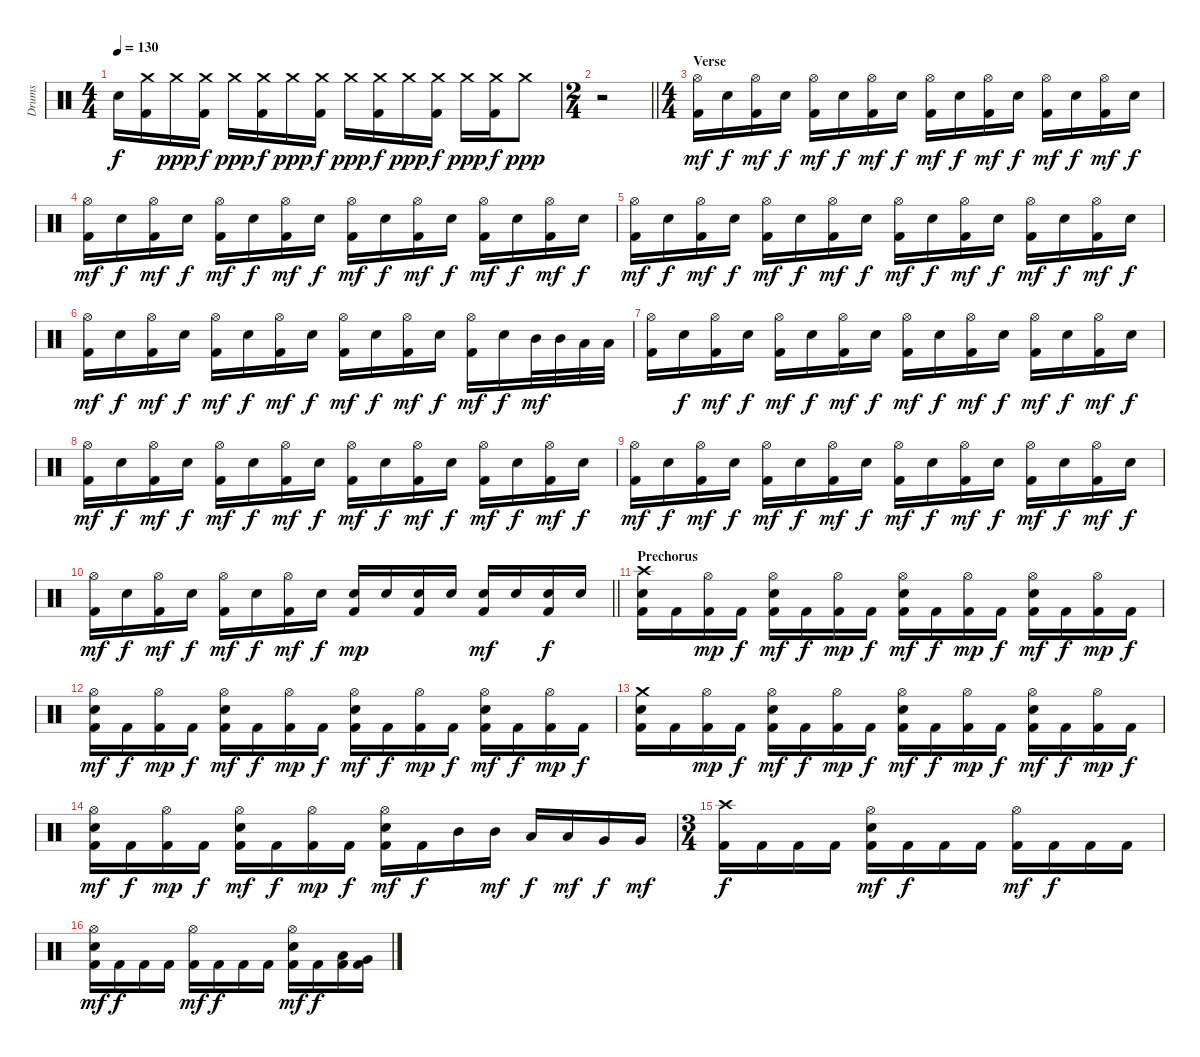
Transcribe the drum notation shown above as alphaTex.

\track ("Drums" "Drums") {instrument percussion}
\staff {score}
\articulation defaults
\ts (4 4)
\tempo 130
\clef neutral
\ks c "Electric Snare (hit)".16{dy f}
("Kick (hit) 2" "Crash medium (hit)").16 "Crash medium (hit)".16{dy ppp} ("Kick (hit) 2" "Crash medium (hit)").16{dy f} "Crash medium (hit)".16{dy ppp} ("Kick (hit) 2" "Crash medium (hit)").16{dy f} "Crash medium (hit)".16{dy ppp} ("Kick (hit) 2" "Crash medium (hit)").16{dy f} "Crash medium (hit)".16{dy ppp} ("Kick (hit) 2" "Crash medium (hit)").16{dy f} "Crash medium (hit)".16{dy ppp} ("Kick (hit) 2" "Crash medium (hit)").16{dy f} "Crash medium (hit)".16{dy ppp} ("Kick (hit) 2" "Crash medium (hit)").16{dy f} "Crash medium (hit)".8{dy ppp} |
\ts (2 4)
\barLineRight lightlight
r.2 |
\ts (4 4)
\section ("" "Verse")
("Kick (hit) 2" "Hi-Hat (open)").16{dy mf} "Electric Snare (hit)".16{dy f} ("Kick (hit) 2" "Hi-Hat (open)").16{dy mf} "Electric Snare (hit)".16{dy f} ("Kick (hit) 2" "Hi-Hat (open)").16{dy mf} "Electric Snare (hit)".16{dy f} ("Kick (hit) 2" "Hi-Hat (open)").16{dy mf} "Electric Snare (hit)".16{dy f} ("Kick (hit) 2" "Hi-Hat (open)").16{dy mf} "Electric Snare (hit)".16{dy f} ("Kick (hit) 2" "Hi-Hat (open)").16{dy mf} "Electric Snare (hit)".16{dy f} ("Kick (hit) 2" "Hi-Hat (open)").16{dy mf} "Electric Snare (hit)".16{dy f} ("Kick (hit) 2" "Hi-Hat (open)").16{dy mf} "Electric Snare (hit)".16{dy f} |
("Kick (hit) 2" "Hi-Hat (open)").16{dy mf} "Electric Snare (hit)".16{dy f} ("Kick (hit) 2" "Hi-Hat (open)").16{dy mf} "Electric Snare (hit)".16{dy f} ("Kick (hit) 2" "Hi-Hat (open)").16{dy mf} "Electric Snare (hit)".16{dy f} ("Kick (hit) 2" "Hi-Hat (open)").16{dy mf} "Electric Snare (hit)".16{dy f} ("Kick (hit) 2" "Hi-Hat (open)").16{dy mf} "Electric Snare (hit)".16{dy f} ("Kick (hit) 2" "Hi-Hat (open)").16{dy mf} "Electric Snare (hit)".16{dy f} ("Kick (hit) 2" "Hi-Hat (open)").16{dy mf} "Electric Snare (hit)".16{dy f} ("Kick (hit) 2" "Hi-Hat (open)").16{dy mf} "Electric Snare (hit)".16{dy f} |
("Kick (hit) 2" "Hi-Hat (open)").16{dy mf} "Electric Snare (hit)".16{dy f} ("Kick (hit) 2" "Hi-Hat (open)").16{dy mf} "Electric Snare (hit)".16{dy f} ("Kick (hit) 2" "Hi-Hat (open)").16{dy mf} "Electric Snare (hit)".16{dy f} ("Kick (hit) 2" "Hi-Hat (open)").16{dy mf} "Electric Snare (hit)".16{dy f} ("Kick (hit) 2" "Hi-Hat (open)").16{dy mf} "Electric Snare (hit)".16{dy f} ("Kick (hit) 2" "Hi-Hat (open)").16{dy mf} "Electric Snare (hit)".16{dy f} ("Kick (hit) 2" "Hi-Hat (open)").16{dy mf} "Electric Snare (hit)".16{dy f} ("Kick (hit) 2" "Hi-Hat (open)").16{dy mf} "Electric Snare (hit)".16{dy f} |
("Kick (hit) 2" "Hi-Hat (open)").16{dy mf} "Electric Snare (hit)".16{dy f} ("Kick (hit) 2" "Hi-Hat (open)").16{dy mf} "Electric Snare (hit)".16{dy f} ("Kick (hit) 2" "Hi-Hat (open)").16{dy mf} "Electric Snare (hit)".16{dy f} ("Kick (hit) 2" "Hi-Hat (open)").16{dy mf} "Electric Snare (hit)".16{dy f} ("Kick (hit) 2" "Hi-Hat (open)").16{dy mf} "Electric Snare (hit)".16{dy f} ("Kick (hit) 2" "Hi-Hat (open)").16{dy mf} "Electric Snare (hit)".16{dy f} ("Kick (hit) 2" "Hi-Hat (open)").16{dy mf} "Electric Snare (hit)".16{dy f} "Mid Tom (hit)".32{dy mf} "Mid Tom (hit)".32 "Low Tom (hit)".32 "Low Tom (hit)".32 |
("Kick (hit) 2" "Hi-Hat (open)").16 "Electric Snare (hit)".16{dy f} ("Kick (hit) 2" "Hi-Hat (open)").16{dy mf} "Electric Snare (hit)".16{dy f} ("Kick (hit) 2" "Hi-Hat (open)").16{dy mf} "Electric Snare (hit)".16{dy f} ("Kick (hit) 2" "Hi-Hat (open)").16{dy mf} "Electric Snare (hit)".16{dy f} ("Kick (hit) 2" "Hi-Hat (open)").16{dy mf} "Electric Snare (hit)".16{dy f} ("Kick (hit) 2" "Hi-Hat (open)").16{dy mf} "Electric Snare (hit)".16{dy f} ("Kick (hit) 2" "Hi-Hat (open)").16{dy mf} "Electric Snare (hit)".16{dy f} ("Kick (hit) 2" "Hi-Hat (open)").16{dy mf} "Electric Snare (hit)".16{dy f} |
("Kick (hit) 2" "Hi-Hat (open)").16{dy mf} "Electric Snare (hit)".16{dy f} ("Kick (hit) 2" "Hi-Hat (open)").16{dy mf} "Electric Snare (hit)".16{dy f} ("Kick (hit) 2" "Hi-Hat (open)").16{dy mf} "Electric Snare (hit)".16{dy f} ("Kick (hit) 2" "Hi-Hat (open)").16{dy mf} "Electric Snare (hit)".16{dy f} ("Kick (hit) 2" "Hi-Hat (open)").16{dy mf} "Electric Snare (hit)".16{dy f} ("Kick (hit) 2" "Hi-Hat (open)").16{dy mf} "Electric Snare (hit)".16{dy f} ("Kick (hit) 2" "Hi-Hat (open)").16{dy mf} "Electric Snare (hit)".16{dy f} ("Kick (hit) 2" "Hi-Hat (open)").16{dy mf} "Electric Snare (hit)".16{dy f} |
("Kick (hit) 2" "Hi-Hat (open)").16{dy mf} "Electric Snare (hit)".16{dy f} ("Kick (hit) 2" "Hi-Hat (open)").16{dy mf} "Electric Snare (hit)".16{dy f} ("Kick (hit) 2" "Hi-Hat (open)").16{dy mf} "Electric Snare (hit)".16{dy f} ("Kick (hit) 2" "Hi-Hat (open)").16{dy mf} "Electric Snare (hit)".16{dy f} ("Kick (hit) 2" "Hi-Hat (open)").16{dy mf} "Electric Snare (hit)".16{dy f} ("Kick (hit) 2" "Hi-Hat (open)").16{dy mf} "Electric Snare (hit)".16{dy f} ("Kick (hit) 2" "Hi-Hat (open)").16{dy mf} "Electric Snare (hit)".16{dy f} ("Kick (hit) 2" "Hi-Hat (open)").16{dy mf} "Electric Snare (hit)".16{dy f} |
\barLineRight lightlight
("Kick (hit) 2" "Hi-Hat (open)").16{dy mf} "Electric Snare (hit)".16{dy f} ("Kick (hit) 2" "Hi-Hat (open)").16{dy mf} "Electric Snare (hit)".16{dy f} ("Kick (hit) 2" "Hi-Hat (open)").16{dy mf} "Electric Snare (hit)".16{dy f} ("Kick (hit) 2" "Hi-Hat (open)").16{dy mf} "Electric Snare (hit)".16{dy f} ("Kick (hit) 2" "Electric Snare (hit)").16{dy mp} "Electric Snare (hit)".16 ("Kick (hit) 2" "Electric Snare (hit)").16 "Electric Snare (hit)".16 ("Kick (hit) 2" "Electric Snare (hit)").16{dy mf} "Electric Snare (hit)".16 ("Kick (hit) 2" "Electric Snare (hit)").16{dy f} "Electric Snare (hit)".16 |
\section ("" "Prechorus")
("Kick (hit) 2" "Crash high (hit)" "Electric Snare (hit)").16 "Kick (hit) 2".16 ("Kick (hit) 2" "Hi-Hat (open)").16{dy mp} "Kick (hit) 2".16{dy f} ("Kick (hit) 2" "Hi-Hat (open)" "Electric Snare (hit)").16{dy mf} "Kick (hit) 2".16{dy f} ("Kick (hit) 2" "Hi-Hat (open)").16{dy mp} "Kick (hit) 2".16{dy f} ("Kick (hit) 2" "Hi-Hat (open)" "Electric Snare (hit)").16{dy mf} "Kick (hit) 2".16{dy f} ("Kick (hit) 2" "Hi-Hat (open)").16{dy mp} "Kick (hit) 2".16{dy f} ("Kick (hit) 2" "Hi-Hat (open)" "Electric Snare (hit)").16{dy mf} "Kick (hit) 2".16{dy f} ("Kick (hit) 2" "Hi-Hat (open)").16{dy mp} "Kick (hit) 2".16{dy f} |
("Kick (hit) 2" "Hi-Hat (open)" "Electric Snare (hit)").16{dy mf} "Kick (hit) 2".16{dy f} ("Kick (hit) 2" "Hi-Hat (open)").16{dy mp} "Kick (hit) 2".16{dy f} ("Kick (hit) 2" "Hi-Hat (open)" "Electric Snare (hit)").16{dy mf} "Kick (hit) 2".16{dy f} ("Kick (hit) 2" "Hi-Hat (open)").16{dy mp} "Kick (hit) 2".16{dy f} ("Kick (hit) 2" "Hi-Hat (open)" "Electric Snare (hit)").16{dy mf} "Kick (hit) 2".16{dy f} ("Kick (hit) 2" "Hi-Hat (open)").16{dy mp} "Kick (hit) 2".16{dy f} ("Kick (hit) 2" "Hi-Hat (open)" "Electric Snare (hit)").16{dy mf} "Kick (hit) 2".16{dy f} ("Kick (hit) 2" "Hi-Hat (open)").16{dy mp} "Kick (hit) 2".16{dy f} |
("Kick (hit) 2" "Crash medium (hit)" "Electric Snare (hit)").16 "Kick (hit) 2".16 ("Kick (hit) 2" "Hi-Hat (open)").16{dy mp} "Kick (hit) 2".16{dy f} ("Kick (hit) 2" "Hi-Hat (open)" "Electric Snare (hit)").16{dy mf} "Kick (hit) 2".16{dy f} ("Kick (hit) 2" "Hi-Hat (open)").16{dy mp} "Kick (hit) 2".16{dy f} ("Kick (hit) 2" "Hi-Hat (open)" "Electric Snare (hit)").16{dy mf} "Kick (hit) 2".16{dy f} ("Kick (hit) 2" "Hi-Hat (open)").16{dy mp} "Kick (hit) 2".16{dy f} ("Kick (hit) 2" "Hi-Hat (open)" "Electric Snare (hit)").16{dy mf} "Kick (hit) 2".16{dy f} ("Kick (hit) 2" "Hi-Hat (open)").16{dy mp} "Kick (hit) 2".16{dy f} |
("Kick (hit) 2" "Hi-Hat (open)" "Electric Snare (hit)").16{dy mf} "Kick (hit) 2".16{dy f} ("Kick (hit) 2" "Hi-Hat (open)").16{dy mp} "Kick (hit) 2".16{dy f} ("Kick (hit) 2" "Hi-Hat (open)" "Electric Snare (hit)").16{dy mf} "Kick (hit) 2".16{dy f} ("Kick (hit) 2" "Hi-Hat (open)").16{dy mp} "Kick (hit) 2".16{dy f} ("Kick (hit) 2" "Hi-Hat (open)" "Electric Snare (hit)").16{dy mf} "Kick (hit) 2".16{dy f} "Mid Tom (hit)".16 "Mid Tom (hit)".16{dy mf} "Low Tom (hit)".16{dy f} "Low Tom (hit)".16{dy mf} "Very Low Tom (hit)".16{dy f} "Very Low Tom (hit)".16{dy mf} |
\ts (3 4)
("Kick (hit) 2" "Crash high (hit)").16{dy f} "Kick (hit) 2".16 "Kick (hit) 2".16 "Kick (hit) 2".16 ("Kick (hit) 2" "Hi-Hat (open)" "Electric Snare (hit)").16{dy mf} "Kick (hit) 2".16{dy f} "Kick (hit) 2".16 "Kick (hit) 2".16 ("Kick (hit) 2" "Hi-Hat (open)").16{dy mf} "Kick (hit) 2".16{dy f} "Kick (hit) 2".16 "Kick (hit) 2".16 |
("Kick (hit) 2" "Hi-Hat (open)" "Electric Snare (hit)").16{dy mf} "Kick (hit) 2".16{dy f} "Kick (hit) 2".16 "Kick (hit) 2".16 ("Kick (hit) 2" "Hi-Hat (open)").16{dy mf} "Kick (hit) 2".16{dy f} "Kick (hit) 2".16 "Kick (hit) 2".16 ("Kick (hit) 2" "Hi-Hat (open)" "Electric Snare (hit)").16{dy mf} "Kick (hit) 2".16{dy f} ("Kick (hit) 2" "Low Tom (hit)").16 ("Kick (hit) 2" "Very Low Tom (hit)").16
